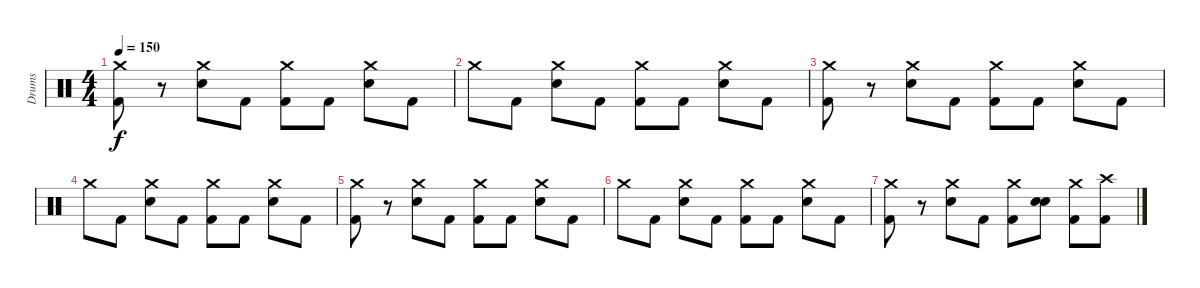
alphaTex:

\track ("Drums" "Drums") {instrument percussion}
\staff {score}
\articulation defaults
\ts (4 4)
\tempo 150
\clef neutral
\ks c
("Crash medium (hit)" "Kick (hit) 2").8{dy f} r.8 ("Crash medium (hit)" "Electric Snare (hit)").8 "Kick (hit) 2".8 ("Crash medium (hit)" "Kick (hit) 2").8 "Kick (hit) 2".8 ("Crash medium (hit)" "Electric Snare (hit)").8 "Kick (hit) 2".8 |
"Crash medium (hit)".8 "Kick (hit) 2".8 ("Crash medium (hit)" "Electric Snare (hit)").8 "Kick (hit) 2".8 ("Crash medium (hit)" "Kick (hit) 2").8 "Kick (hit) 2".8 ("Crash medium (hit)" "Electric Snare (hit)").8 "Kick (hit) 2".8 |
("Crash medium (hit)" "Kick (hit) 2").8 r.8 ("Crash medium (hit)" "Electric Snare (hit)").8 "Kick (hit) 2".8 ("Crash medium (hit)" "Kick (hit) 2").8 "Kick (hit) 2".8 ("Crash medium (hit)" "Electric Snare (hit)").8 "Kick (hit) 2".8 |
"Crash medium (hit)".8 "Kick (hit) 2".8 ("Crash medium (hit)" "Electric Snare (hit)").8 "Kick (hit) 2".8 ("Crash medium (hit)" "Kick (hit) 2").8 "Kick (hit) 2".8 ("Crash medium (hit)" "Electric Snare (hit)").8 "Kick (hit) 2".8 |
("Crash medium (hit)" "Kick (hit) 2").8 r.8 ("Crash medium (hit)" "Electric Snare (hit)").8 "Kick (hit) 2".8 ("Crash medium (hit)" "Kick (hit) 2").8 "Kick (hit) 2".8 ("Crash medium (hit)" "Electric Snare (hit)").8 "Kick (hit) 2".8 |
"Crash medium (hit)".8 "Kick (hit) 2".8 ("Crash medium (hit)" "Electric Snare (hit)").8 "Kick (hit) 2".8 ("Crash medium (hit)" "Kick (hit) 2").8 "Kick (hit) 2".8 ("Crash medium (hit)" "Electric Snare (hit)").8 "Kick (hit) 2".8 |
("Crash medium (hit)" "Kick (hit) 2").8 r.8 ("Crash medium (hit)" "Electric Snare (hit)").8 "Kick (hit) 2".8 ("Crash medium (hit)" "Kick (hit) 2").8 ("Electric Snare (hit)" "Electric Snare (hit)").8{bu 480} ("Crash medium (hit)" "Kick (hit) 2").8 ("Crash high (hit)" "Kick (hit) 2").8
